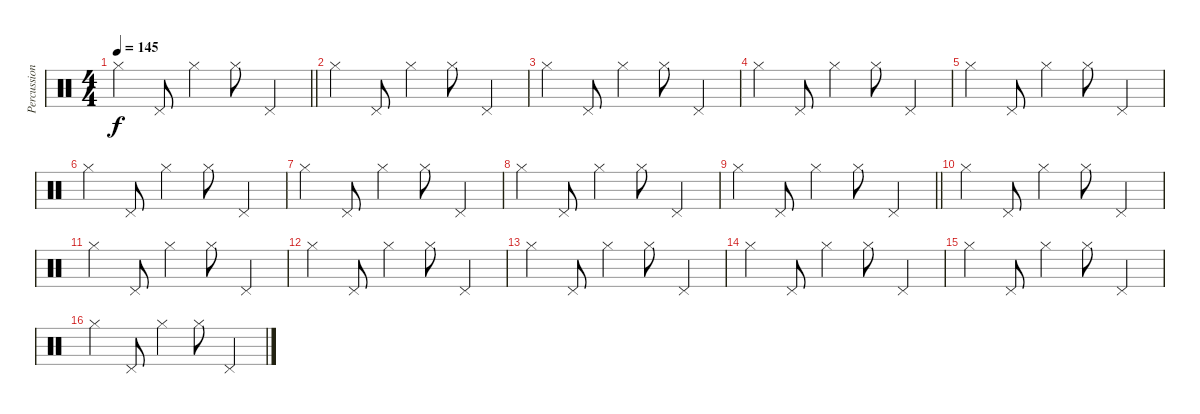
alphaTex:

\track ("Percussion" "Percussion") {instrument percussion}
\staff {score}
\articulation defaults
\ts (4 4)
\tempo 145
\clef neutral
\barLineRight lightlight
\ks c "Hi-Hat (closed)".4{dy f} "Pedal Hi-Hat (hit)".8 "Hi-Hat (closed)".4 "Hi-Hat (closed)".8 "Pedal Hi-Hat (hit)".4
|
"Hi-Hat (closed)".4 "Pedal Hi-Hat (hit)".8 "Hi-Hat (closed)".4 "Hi-Hat (closed)".8 "Pedal Hi-Hat (hit)".4 |
"Hi-Hat (closed)".4 "Pedal Hi-Hat (hit)".8 "Hi-Hat (closed)".4 "Hi-Hat (closed)".8 "Pedal Hi-Hat (hit)".4 |
"Hi-Hat (closed)".4 "Pedal Hi-Hat (hit)".8 "Hi-Hat (closed)".4 "Hi-Hat (closed)".8 "Pedal Hi-Hat (hit)".4 |
"Hi-Hat (closed)".4 "Pedal Hi-Hat (hit)".8 "Hi-Hat (closed)".4 "Hi-Hat (closed)".8 "Pedal Hi-Hat (hit)".4 |
"Hi-Hat (closed)".4 "Pedal Hi-Hat (hit)".8 "Hi-Hat (closed)".4 "Hi-Hat (closed)".8 "Pedal Hi-Hat (hit)".4 |
"Hi-Hat (closed)".4 "Pedal Hi-Hat (hit)".8 "Hi-Hat (closed)".4 "Hi-Hat (closed)".8 "Pedal Hi-Hat (hit)".4 |
"Hi-Hat (closed)".4 "Pedal Hi-Hat (hit)".8 "Hi-Hat (closed)".4 "Hi-Hat (closed)".8 "Pedal Hi-Hat (hit)".4 |
\barLineRight lightlight "Hi-Hat (closed)".4 "Pedal Hi-Hat (hit)".8 "Hi-Hat (closed)".4 "Hi-Hat (closed)".8 "Pedal Hi-Hat (hit)".4
|
"Hi-Hat (closed)".4 "Pedal Hi-Hat (hit)".8 "Hi-Hat (closed)".4 "Hi-Hat (closed)".8 "Pedal Hi-Hat (hit)".4 |
"Hi-Hat (closed)".4 "Pedal Hi-Hat (hit)".8 "Hi-Hat (closed)".4 "Hi-Hat (closed)".8 "Pedal Hi-Hat (hit)".4 |
"Hi-Hat (closed)".4 "Pedal Hi-Hat (hit)".8 "Hi-Hat (closed)".4 "Hi-Hat (closed)".8 "Pedal Hi-Hat (hit)".4 |
"Hi-Hat (closed)".4 "Pedal Hi-Hat (hit)".8 "Hi-Hat (closed)".4 "Hi-Hat (closed)".8 "Pedal Hi-Hat (hit)".4 |
"Hi-Hat (closed)".4 "Pedal Hi-Hat (hit)".8 "Hi-Hat (closed)".4 "Hi-Hat (closed)".8 "Pedal Hi-Hat (hit)".4 |
"Hi-Hat (closed)".4 "Pedal Hi-Hat (hit)".8 "Hi-Hat (closed)".4 "Hi-Hat (closed)".8 "Pedal Hi-Hat (hit)".4 |
"Hi-Hat (closed)".4 "Pedal Hi-Hat (hit)".8 "Hi-Hat (closed)".4 "Hi-Hat (closed)".8 "Pedal Hi-Hat (hit)".4
